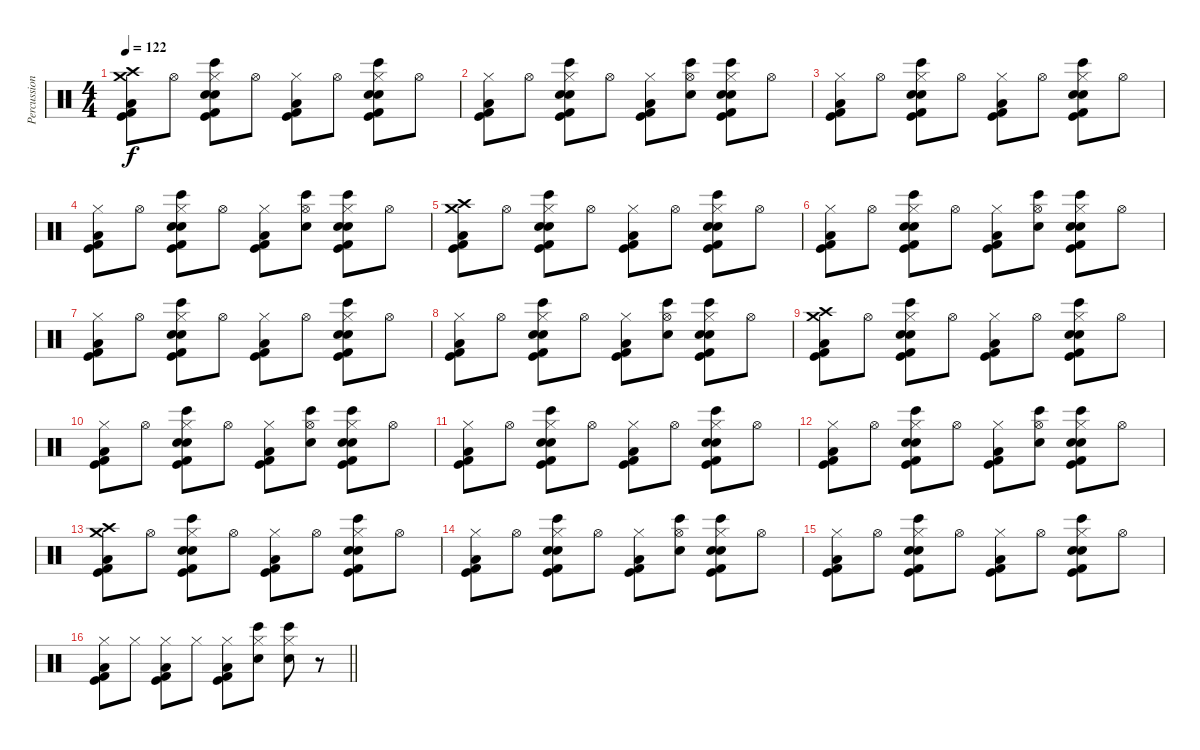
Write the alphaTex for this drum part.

\track ("Percussion" "Percussion") {instrument percussion}
\staff {score}
\articulation defaults
\ts (4 4)
\tempo 122
\clef neutral
\ks c
("Crash medium (hit)" "Crash high (hit)" "Low Floor Tom (hit)" "Kick (hit)" "Kick (hit) 2").8{dy f} "Hi-Hat (open)".8 ("Hand Clap (hit)" "Bongo High (hit)" "Hi-Hat (closed)" "Electric Snare (hit)" "Kick (hit)" "Kick (hit) 2").8 "Hi-Hat (open)".8 ("Hi-Hat (closed)" "Low Floor Tom (hit)" "Kick (hit)" "Kick (hit) 2").8 "Hi-Hat (open)".8 ("Hand Clap (hit)" "Bongo High (hit)" "Hi-Hat (closed)" "Electric Snare (hit)" "Kick (hit)" "Kick (hit) 2").8 "Hi-Hat (open)".8 |
("Hi-Hat (closed)" "Low Floor Tom (hit)" "Kick (hit)" "Kick (hit) 2").8 "Hi-Hat (open)".8 ("Hand Clap (hit)" "Bongo High (hit)" "Hi-Hat (closed)" "Electric Snare (hit)" "Kick (hit)" "Kick (hit) 2").8 "Hi-Hat (open)".8 ("Hi-Hat (closed)" "Low Floor Tom (hit)" "Kick (hit)" "Kick (hit) 2").8 ("Hand Clap (hit)" "Bongo High (hit)" "Hi-Hat (open)").8 ("Hand Clap (hit)" "Bongo High (hit)" "Hi-Hat (closed)" "Electric Snare (hit)" "Kick (hit)" "Kick (hit) 2").8 "Hi-Hat (open)".8 |
("Hi-Hat (closed)" "Low Floor Tom (hit)" "Kick (hit)" "Kick (hit) 2").8 "Hi-Hat (open)".8 ("Hand Clap (hit)" "Bongo High (hit)" "Hi-Hat (closed)" "Electric Snare (hit)" "Kick (hit)" "Kick (hit) 2").8 "Hi-Hat (open)".8 ("Hi-Hat (closed)" "Low Floor Tom (hit)" "Kick (hit)" "Kick (hit) 2").8 "Hi-Hat (open)".8 ("Hand Clap (hit)" "Bongo High (hit)" "Hi-Hat (closed)" "Electric Snare (hit)" "Kick (hit)" "Kick (hit) 2").8 "Hi-Hat (open)".8 |
("Hi-Hat (closed)" "Low Floor Tom (hit)" "Kick (hit)" "Kick (hit) 2").8 "Hi-Hat (open)".8 ("Hand Clap (hit)" "Bongo High (hit)" "Hi-Hat (closed)" "Electric Snare (hit)" "Kick (hit)" "Kick (hit) 2").8 "Hi-Hat (open)".8 ("Hi-Hat (closed)" "Low Floor Tom (hit)" "Kick (hit)" "Kick (hit) 2").8 ("Hand Clap (hit)" "Bongo High (hit)" "Hi-Hat (open)").8 ("Hand Clap (hit)" "Bongo High (hit)" "Hi-Hat (closed)" "Electric Snare (hit)" "Kick (hit)" "Kick (hit) 2").8 "Hi-Hat (open)".8 |
("Crash medium (hit)" "Crash high (hit)" "Low Floor Tom (hit)" "Kick (hit)" "Kick (hit) 2").8 "Hi-Hat (open)".8 ("Hand Clap (hit)" "Bongo High (hit)" "Hi-Hat (closed)" "Electric Snare (hit)" "Kick (hit)" "Kick (hit) 2").8 "Hi-Hat (open)".8 ("Hi-Hat (closed)" "Low Floor Tom (hit)" "Kick (hit)" "Kick (hit) 2").8 "Hi-Hat (open)".8 ("Hand Clap (hit)" "Bongo High (hit)" "Hi-Hat (closed)" "Electric Snare (hit)" "Kick (hit)" "Kick (hit) 2").8 "Hi-Hat (open)".8 |
("Hi-Hat (closed)" "Low Floor Tom (hit)" "Kick (hit)" "Kick (hit) 2").8 "Hi-Hat (open)".8 ("Hand Clap (hit)" "Bongo High (hit)" "Hi-Hat (closed)" "Electric Snare (hit)" "Kick (hit)" "Kick (hit) 2").8 "Hi-Hat (open)".8 ("Hi-Hat (closed)" "Low Floor Tom (hit)" "Kick (hit)" "Kick (hit) 2").8 ("Hand Clap (hit)" "Bongo High (hit)" "Hi-Hat (open)").8 ("Hand Clap (hit)" "Bongo High (hit)" "Hi-Hat (closed)" "Electric Snare (hit)" "Kick (hit)" "Kick (hit) 2").8 "Hi-Hat (open)".8 |
("Hi-Hat (closed)" "Low Floor Tom (hit)" "Kick (hit)" "Kick (hit) 2").8 "Hi-Hat (open)".8 ("Hand Clap (hit)" "Bongo High (hit)" "Hi-Hat (closed)" "Electric Snare (hit)" "Kick (hit)" "Kick (hit) 2").8 "Hi-Hat (open)".8 ("Hi-Hat (closed)" "Low Floor Tom (hit)" "Kick (hit)" "Kick (hit) 2").8 "Hi-Hat (open)".8 ("Hand Clap (hit)" "Bongo High (hit)" "Hi-Hat (closed)" "Electric Snare (hit)" "Kick (hit)" "Kick (hit) 2").8 "Hi-Hat (open)".8 |
("Hi-Hat (closed)" "Low Floor Tom (hit)" "Kick (hit)" "Kick (hit) 2").8 "Hi-Hat (open)".8 ("Hand Clap (hit)" "Bongo High (hit)" "Hi-Hat (closed)" "Electric Snare (hit)" "Kick (hit)" "Kick (hit) 2").8 "Hi-Hat (open)".8 ("Hi-Hat (closed)" "Low Floor Tom (hit)" "Kick (hit)" "Kick (hit) 2").8 ("Hand Clap (hit)" "Bongo High (hit)" "Hi-Hat (open)").8 ("Hand Clap (hit)" "Bongo High (hit)" "Hi-Hat (closed)" "Electric Snare (hit)" "Kick (hit)" "Kick (hit) 2").8 "Hi-Hat (open)".8 |
("Crash medium (hit)" "Crash high (hit)" "Low Floor Tom (hit)" "Kick (hit)" "Kick (hit) 2").8 "Hi-Hat (open)".8 ("Hand Clap (hit)" "Bongo High (hit)" "Hi-Hat (closed)" "Electric Snare (hit)" "Kick (hit)" "Kick (hit) 2").8 "Hi-Hat (open)".8 ("Hi-Hat (closed)" "Low Floor Tom (hit)" "Kick (hit)" "Kick (hit) 2").8 "Hi-Hat (open)".8 ("Hand Clap (hit)" "Bongo High (hit)" "Hi-Hat (closed)" "Electric Snare (hit)" "Kick (hit)" "Kick (hit) 2").8 "Hi-Hat (open)".8 |
("Hi-Hat (closed)" "Low Floor Tom (hit)" "Kick (hit)" "Kick (hit) 2").8 "Hi-Hat (open)".8 ("Hand Clap (hit)" "Bongo High (hit)" "Hi-Hat (closed)" "Electric Snare (hit)" "Kick (hit)" "Kick (hit) 2").8 "Hi-Hat (open)".8 ("Hi-Hat (closed)" "Low Floor Tom (hit)" "Kick (hit)" "Kick (hit) 2").8 ("Hand Clap (hit)" "Bongo High (hit)" "Hi-Hat (open)").8 ("Hand Clap (hit)" "Bongo High (hit)" "Hi-Hat (closed)" "Electric Snare (hit)" "Kick (hit)" "Kick (hit) 2").8 "Hi-Hat (open)".8 |
("Hi-Hat (closed)" "Low Floor Tom (hit)" "Kick (hit)" "Kick (hit) 2").8 "Hi-Hat (open)".8 ("Hand Clap (hit)" "Bongo High (hit)" "Hi-Hat (closed)" "Electric Snare (hit)" "Kick (hit)" "Kick (hit) 2").8 "Hi-Hat (open)".8 ("Hi-Hat (closed)" "Low Floor Tom (hit)" "Kick (hit)" "Kick (hit) 2").8 "Hi-Hat (open)".8 ("Hand Clap (hit)" "Bongo High (hit)" "Hi-Hat (closed)" "Electric Snare (hit)" "Kick (hit)" "Kick (hit) 2").8 "Hi-Hat (open)".8 |
("Hi-Hat (closed)" "Low Floor Tom (hit)" "Kick (hit)" "Kick (hit) 2").8 "Hi-Hat (open)".8 ("Hand Clap (hit)" "Bongo High (hit)" "Hi-Hat (closed)" "Electric Snare (hit)" "Kick (hit)" "Kick (hit) 2").8 "Hi-Hat (open)".8 ("Hi-Hat (closed)" "Low Floor Tom (hit)" "Kick (hit)" "Kick (hit) 2").8 ("Hand Clap (hit)" "Bongo High (hit)" "Hi-Hat (open)").8 ("Hand Clap (hit)" "Bongo High (hit)" "Hi-Hat (closed)" "Electric Snare (hit)" "Kick (hit)" "Kick (hit) 2").8 "Hi-Hat (open)".8 |
("Crash medium (hit)" "Crash high (hit)" "Low Floor Tom (hit)" "Kick (hit)" "Kick (hit) 2").8 "Hi-Hat (open)".8 ("Hand Clap (hit)" "Bongo High (hit)" "Hi-Hat (closed)" "Electric Snare (hit)" "Kick (hit)" "Kick (hit) 2").8 "Hi-Hat (open)".8 ("Hi-Hat (closed)" "Low Floor Tom (hit)" "Kick (hit)" "Kick (hit) 2").8 "Hi-Hat (open)".8 ("Hand Clap (hit)" "Bongo High (hit)" "Hi-Hat (closed)" "Electric Snare (hit)" "Kick (hit)" "Kick (hit) 2").8 "Hi-Hat (open)".8 |
("Hi-Hat (closed)" "Low Floor Tom (hit)" "Kick (hit)" "Kick (hit) 2").8 "Hi-Hat (open)".8 ("Hand Clap (hit)" "Bongo High (hit)" "Hi-Hat (closed)" "Electric Snare (hit)" "Kick (hit)" "Kick (hit) 2").8 "Hi-Hat (open)".8 ("Hi-Hat (closed)" "Low Floor Tom (hit)" "Kick (hit)" "Kick (hit) 2").8 ("Hand Clap (hit)" "Bongo High (hit)" "Hi-Hat (open)").8 ("Hand Clap (hit)" "Bongo High (hit)" "Hi-Hat (closed)" "Electric Snare (hit)" "Kick (hit)" "Kick (hit) 2").8 "Hi-Hat (open)".8 |
("Hi-Hat (closed)" "Low Floor Tom (hit)" "Kick (hit)" "Kick (hit) 2").8 "Hi-Hat (open)".8 ("Hand Clap (hit)" "Bongo High (hit)" "Hi-Hat (closed)" "Electric Snare (hit)" "Kick (hit)" "Kick (hit) 2").8 "Hi-Hat (open)".8 ("Hi-Hat (closed)" "Low Floor Tom (hit)" "Kick (hit)" "Kick (hit) 2").8 "Hi-Hat (open)".8 ("Hand Clap (hit)" "Bongo High (hit)" "Hi-Hat (closed)" "Electric Snare (hit)" "Kick (hit)" "Kick (hit) 2").8 "Hi-Hat (open)".8 |
\barLineRight lightlight
("Hi-Hat (closed)" "Low Floor Tom (hit)" "Kick (hit)" "Kick (hit) 2").8 "Hi-Hat (closed)".8 ("Hi-Hat (closed)" "Low Floor Tom (hit)" "Kick (hit)" "Kick (hit) 2").8 "Hi-Hat (closed)".8 ("Hi-Hat (closed)" "Low Floor Tom (hit)" "Kick (hit)" "Kick (hit) 2").8 ("Hand Clap (hit)" "Bongo High (hit)" "Hi-Hat (closed)").8 ("Hand Clap (hit)" "Bongo High (hit)" "Hi-Hat (closed)").8 r.8
